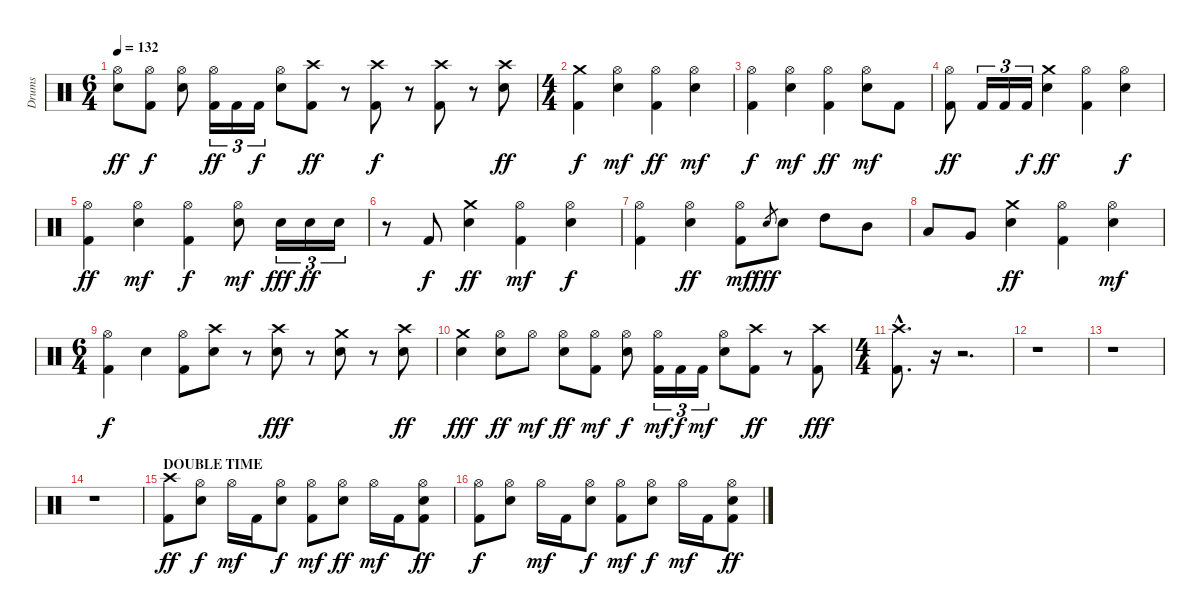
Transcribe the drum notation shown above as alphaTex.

\track ("Drums" "Drums") {instrument percussion}
\staff {score}
\articulation defaults
\ts (6 4)
\tempo 132
\clef neutral
\ks c
("Hi-Hat (open)" "Electric Snare (hit)").8{dy ff} ("Hi-Hat (open)" "Kick (hit) 2").8{dy f} ("Hi-Hat (open)" "Electric Snare (hit)").8 ("Hi-Hat (open)" "Kick (hit) 2").16{tu (3 2) dy ff} "Kick (hit) 2".16{tu (3 2)} "Kick (hit) 2".16{tu (3 2) dy f} ("Hi-Hat (open)" "Electric Snare (hit)").8 ("Crash high (hit)" "Kick (hit) 2").8{dy ff} r.8{volume 0} ("Crash high (hit)" "Kick (hit) 2").8{dy f volume 14} r.8{volume 0} ("Crash high (hit)" "Kick (hit) 2").8{volume 14} r.8{volume 0} ("Crash high (hit)" "Electric Snare (hit)").8{dy ff volume 14} |
\ts (4 4)
("Crash medium (hit)" "Kick (hit) 2").4{dy f} ("Hi-Hat (open)" "Electric Snare (hit)").4{dy mf} ("Hi-Hat (open)" "Kick (hit) 2").4{dy ff} ("Hi-Hat (open)" "Electric Snare (hit)").4{dy mf} |
("Hi-Hat (open)" "Kick (hit) 2").4{dy f} ("Hi-Hat (open)" "Electric Snare (hit)").4{dy mf} ("Hi-Hat (open)" "Kick (hit) 2").4{dy ff} ("Hi-Hat (open)" "Electric Snare (hit)").8{dy mf} "Kick (hit) 2".8 |
("Hi-Hat (open)" "Kick (hit) 2").8{dy ff} "Kick (hit) 2".16{tu (3 2)} "Kick (hit) 2".16{tu (3 2)} "Kick (hit) 2".16{tu (3 2) dy f} ("Crash medium (hit)" "Electric Snare (hit)").4{dy ff} ("Hi-Hat (open)" "Kick (hit) 2").4 ("Hi-Hat (open)" "Electric Snare (hit)").4{dy f} |
("Hi-Hat (open)" "Kick (hit) 2").4{dy ff} ("Hi-Hat (open)" "Electric Snare (hit)").4{dy mf} ("Hi-Hat (open)" "Kick (hit) 2").4{dy f} ("Hi-Hat (open)" "Electric Snare (hit)").8{dy mf} "Electric Snare (hit)".16{tu (3 2) dy fff} "Electric Snare (hit)".16{tu (3 2) dy ff} "Electric Snare (hit)".16{tu (3 2)} |
r.8 "Kick (hit) 2".8{dy f} ("Crash medium (hit)" "Electric Snare (hit)").4{dy ff} ("Hi-Hat (open)" "Kick (hit) 2").4{dy mf} ("Hi-Hat (open)" "Electric Snare (hit)").4{dy f} |
("Hi-Hat (open)" "Kick (hit) 2").4 ("Hi-Hat (open)" "Electric Snare (hit)").4{dy ff} ("Hi-Hat (open)" "Kick (hit) 2").8{dy mf} "Electric Snare (hit)".8{gr dy fff} "Electric Snare (hit)".8 "High Tom (hit)".8 "Mid Tom (hit)".8 |
"Low Tom (hit)".8 "Very Low Tom (hit)".8 ("Crash medium (hit)" "Electric Snare (hit)").4{dy ff} ("Hi-Hat (open)" "Kick (hit) 2").4 ("Hi-Hat (open)" "Electric Snare (hit)").4{dy mf} |
\ts (6 4)
("Hi-Hat (open)" "Kick (hit) 2").4{dy f} "Electric Snare (hit)".4 ("Hi-Hat (open)" "Kick (hit) 2").8 ("Crash high (hit)" "Electric Snare (hit)").8 r.8 ("Crash high (hit)" "Electric Snare (hit)").8{dy fff} r.8 ("Crash medium (hit)" "Electric Snare (hit)").8 r.8 ("Crash high (hit)" "Electric Snare (hit)").8{dy ff} |
("Crash medium (hit)" "Electric Snare (hit)").4{dy fff} ("Hi-Hat (open)" "Electric Snare (hit)").8{dy ff} "Hi-Hat (open)".8{dy mf} ("Hi-Hat (open)" "Electric Snare (hit)").8{dy ff} ("Hi-Hat (open)" "Kick (hit) 2").8{dy mf} ("Hi-Hat (open)" "Electric Snare (hit)").8{dy f} ("Hi-Hat (open)" "Kick (hit) 2").16{tu (3 2) dy mf} "Kick (hit) 2".16{tu (3 2) dy f} "Kick (hit) 2".16{tu (3 2) dy mf} ("Hi-Hat (open)" "Electric Snare (hit)").8 ("Crash high (hit)" "Kick (hit) 2").8{dy ff} r.8{volume 0} ("Crash high (hit)" "Kick (hit) 2").8{dy fff volume 14} |
\ts (4 4)
("Crash high (hit)"{hac} "Kick (hit) 2"{hac}).8{d} r.16{volume 0} r.2{d} |
r.1 |
r.1 |
r.1 |
\section ("" "DOUBLE TIME")
("Crash high (hit)" "Kick (hit) 2").8{dy ff volume 14} ("Hi-Hat (open)" "Electric Snare (hit)").8{dy f} "Hi-Hat (open)".16{dy mf} "Kick (hit) 2".16 ("Hi-Hat (open)" "Electric Snare (hit)").8{dy f} ("Hi-Hat (open)" "Kick (hit) 2").8{dy mf} ("Hi-Hat (open)" "Electric Snare (hit)").8{dy ff} "Hi-Hat (open)".16{dy mf} "Kick (hit) 2".16 ("Hi-Hat (open)" "Electric Snare (hit)" "Kick (hit) 2").8{dy ff} |
("Hi-Hat (open)" "Kick (hit) 2").8{dy f} ("Hi-Hat (open)" "Electric Snare (hit)").8 "Hi-Hat (open)".16{dy mf} "Kick (hit) 2".16 ("Hi-Hat (open)" "Electric Snare (hit)").8{dy f} ("Hi-Hat (open)" "Kick (hit) 2").8{dy mf} ("Hi-Hat (open)" "Electric Snare (hit)").8{dy f} "Hi-Hat (open)".16{dy mf} "Kick (hit) 2".16 ("Hi-Hat (open)" "Electric Snare (hit)" "Kick (hit) 2").8{dy ff}
